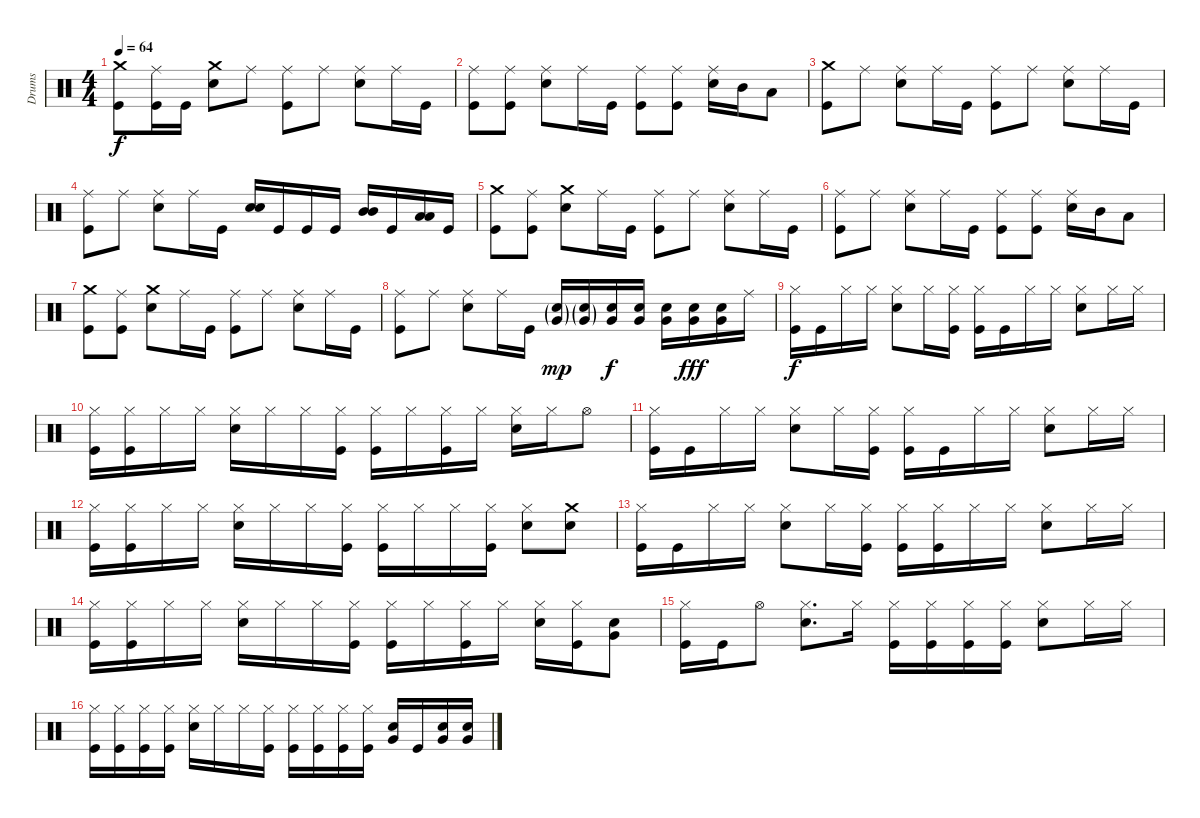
\track ("Drums" "Drums") {instrument percussion}
\staff {score}
\articulation defaults
\ts (4 4)
\tempo 64
\clef neutral
\ks c
("Crash medium (hit)" "Kick (hit)").8{dy f} ("Ride (middle)" "Kick (hit)").16 "Kick (hit)".16 ("Crash medium (hit)" "Snare (hit) 2").8 "Ride (middle)".8 ("Ride (middle)" "Kick (hit)").8 "Ride (middle)".8 ("Ride (middle)" "Snare (hit) 2").8 "Ride (middle)".16 "Kick (hit)".16 |
("Ride (middle)" "Kick (hit)").8 ("Ride (middle)" "Kick (hit)").8 ("Ride (middle)" "Snare (hit) 2").8 "Ride (middle)".16 "Kick (hit)".16 ("Ride (middle)" "Kick (hit)").8 ("Ride (middle)" "Kick (hit)").8 ("Ride (middle)" "Snare (hit) 2").16 "Mid Tom (hit)".16 "Low Tom (hit)".8 |
("Crash medium (hit)" "Kick (hit)").8 "Ride (middle)".8 ("Ride (middle)" "Snare (hit) 2").8 "Ride (middle)".16 "Kick (hit)".16 ("Ride (middle)" "Kick (hit)").8 "Ride (middle)".8 ("Ride (middle)" "Snare (hit) 2").8 "Ride (middle)".16 "Kick (hit)".16 |
("Ride (middle)" "Kick (hit)").8 "Ride (middle)".8 ("Ride (middle)" "Snare (hit) 2").8 "Ride (middle)".16 "Kick (hit)".16 ("Snare (hit) 2" "Snare (hit) 2").16 "Kick (hit)".16 "Kick (hit)".16 "Kick (hit)".16 ("Mid Tom (hit)" "Mid Tom (hit)").16 "Kick (hit)".16 ("Low Tom (hit)" "Low Tom (hit)").16 "Kick (hit)".16 |
("Crash medium (hit)" "Kick (hit)").8 ("Ride (middle)" "Kick (hit)").8 ("Crash medium (hit)" "Snare (hit) 2").8 "Ride (middle)".16 "Kick (hit)".16 ("Ride (middle)" "Kick (hit)").8 "Ride (middle)".8 ("Ride (middle)" "Snare (hit) 2").8 "Ride (middle)".16 "Kick (hit)".16 |
("Ride (middle)" "Kick (hit)").8 "Ride (middle)".8 ("Ride (middle)" "Snare (hit) 2").8 "Ride (middle)".16 "Kick (hit)".16 ("Ride (middle)" "Kick (hit)").8 ("Ride (middle)" "Kick (hit)").8 ("Ride (middle)" "Snare (hit) 2").16 "Mid Tom (hit)".16 "Low Tom (hit)".8 |
("Crash medium (hit)" "Kick (hit)").8 ("Ride (middle)" "Kick (hit)").8 ("Crash medium (hit)" "Snare (hit) 2").8 "Ride (middle)".16 "Kick (hit)".16 ("Ride (middle)" "Kick (hit)").8 "Ride (middle)".8 ("Ride (middle)" "Snare (hit) 2").8 "Ride (middle)".16 "Kick (hit)".16 |
("Ride (middle)" "Kick (hit)").8 "Ride (middle)".8 ("Ride (middle)" "Snare (hit) 2").8 "Ride (middle)".16 "Kick (hit)".16 ("Snare (hit) 2"{g} "Very Low Tom (hit)"{g}).16{dy mp} ("Snare (hit) 2"{g} "Very Low Tom (hit)"{g}).16 ("Snare (hit) 2" "Very Low Tom (hit)").16{dy f} ("Snare (hit) 2" "Very Low Tom (hit)").16 ("Snare (hit) 2" "Very Low Tom (hit)").16 ("Snare (hit) 2" "Very Low Tom (hit)").16{dy fff} ("Snare (hit) 2" "Very Low Tom (hit)").16 "Ride (middle)".16 |
("Hi-Hat (closed)" "Kick (hit)").16{dy f} "Kick (hit)".16 "Hi-Hat (closed)".16 "Hi-Hat (closed)".16 ("Hi-Hat (closed)" "Snare (hit) 2").8 "Hi-Hat (closed)".16 ("Hi-Hat (closed)" "Kick (hit)").16 ("Hi-Hat (closed)" "Kick (hit)").16 "Kick (hit)".16 "Hi-Hat (closed)".16 "Hi-Hat (closed)".16 ("Hi-Hat (closed)" "Snare (hit) 2").8 "Hi-Hat (closed)".16 "Hi-Hat (closed)".16 |
("Hi-Hat (closed)" "Kick (hit)").16 ("Hi-Hat (closed)" "Kick (hit)").16 "Hi-Hat (closed)".16 "Hi-Hat (closed)".16 ("Hi-Hat (closed)" "Snare (hit) 2").16 "Hi-Hat (closed)".16 "Hi-Hat (closed)".16 ("Hi-Hat (closed)" "Kick (hit)").16 ("Hi-Hat (closed)" "Kick (hit)").16 "Hi-Hat (closed)".16 ("Hi-Hat (closed)" "Kick (hit)").16 "Hi-Hat (closed)".16 ("Hi-Hat (closed)" "Snare (hit) 2").16 "Hi-Hat (closed)".16 "Hi-Hat (open)".8 |
("Hi-Hat (closed)" "Kick (hit)").16 "Kick (hit)".16 "Hi-Hat (closed)".16 "Hi-Hat (closed)".16 ("Hi-Hat (closed)" "Snare (hit) 2").8 "Hi-Hat (closed)".16 ("Hi-Hat (closed)" "Kick (hit)").16 ("Hi-Hat (closed)" "Kick (hit)").16 "Kick (hit)".16 "Hi-Hat (closed)".16 "Hi-Hat (closed)".16 ("Hi-Hat (closed)" "Snare (hit) 2").8 "Hi-Hat (closed)".16 "Hi-Hat (closed)".16 |
("Hi-Hat (closed)" "Kick (hit)").16 ("Hi-Hat (closed)" "Kick (hit)").16 "Hi-Hat (closed)".16 "Hi-Hat (closed)".16 ("Hi-Hat (closed)" "Snare (hit) 2").16 "Hi-Hat (closed)".16 "Hi-Hat (closed)".16 ("Hi-Hat (closed)" "Kick (hit)").16 ("Hi-Hat (closed)" "Kick (hit)").16 "Hi-Hat (closed)".16 "Hi-Hat (closed)".16 ("Hi-Hat (closed)" "Kick (hit)").16 ("Hi-Hat (closed)" "Snare (hit) 2").8 ("Crash medium (hit)" "Snare (hit) 2").8 |
("Hi-Hat (closed)" "Kick (hit)").16 "Kick (hit)".16 "Hi-Hat (closed)".16 "Hi-Hat (closed)".16 ("Hi-Hat (closed)" "Snare (hit) 2").8 "Hi-Hat (closed)".16 ("Hi-Hat (closed)" "Kick (hit)").16 ("Hi-Hat (closed)" "Kick (hit)").16 ("Hi-Hat (closed)" "Kick (hit)").16 "Hi-Hat (closed)".16 "Hi-Hat (closed)".16 ("Hi-Hat (closed)" "Snare (hit) 2").8 "Hi-Hat (closed)".16 "Hi-Hat (closed)".16 |
("Hi-Hat (closed)" "Kick (hit)").16 ("Hi-Hat (closed)" "Kick (hit)").16 "Hi-Hat (closed)".16 "Hi-Hat (closed)".16 ("Hi-Hat (closed)" "Snare (hit) 2").16 "Hi-Hat (closed)".16 "Hi-Hat (closed)".16 ("Hi-Hat (closed)" "Kick (hit)").16 ("Hi-Hat (closed)" "Kick (hit)").16 "Hi-Hat (closed)".16 ("Hi-Hat (closed)" "Kick (hit)").16 "Hi-Hat (closed)".16 ("Hi-Hat (closed)" "Snare (hit) 2").16 ("Hi-Hat (closed)" "Kick (hit)").16 ("Snare (hit) 2" "Very Low Tom (hit)").8 |
("Hi-Hat (closed)" "Kick (hit)").16 "Kick (hit)".16 "Hi-Hat (open)".8 ("Hi-Hat (closed)" "Snare (hit) 2").8{d} "Hi-Hat (closed)".16 ("Hi-Hat (closed)" "Kick (hit)").16 ("Hi-Hat (closed)" "Kick (hit)").16 ("Hi-Hat (closed)" "Kick (hit)").16 ("Hi-Hat (closed)" "Kick (hit)").16 ("Hi-Hat (closed)" "Snare (hit) 2").8 "Hi-Hat (closed)".16 "Hi-Hat (closed)".16 |
("Hi-Hat (closed)" "Kick (hit)").16 ("Hi-Hat (closed)" "Kick (hit)").16 ("Hi-Hat (closed)" "Kick (hit)").16 ("Hi-Hat (closed)" "Kick (hit)").16 ("Hi-Hat (closed)" "Snare (hit) 2").16 "Hi-Hat (closed)".16 "Hi-Hat (closed)".16 ("Hi-Hat (closed)" "Kick (hit)").16 ("Hi-Hat (closed)" "Kick (hit)").16 ("Hi-Hat (closed)" "Kick (hit)").16 ("Hi-Hat (closed)" "Kick (hit)").16 ("Hi-Hat (closed)" "Kick (hit)").16 ("Snare (hit) 2" "Very Low Tom (hit)").16 "Kick (hit)".16 ("Snare (hit) 2" "Very Low Tom (hit)").16 ("Snare (hit) 2" "Very Low Tom (hit)").16
